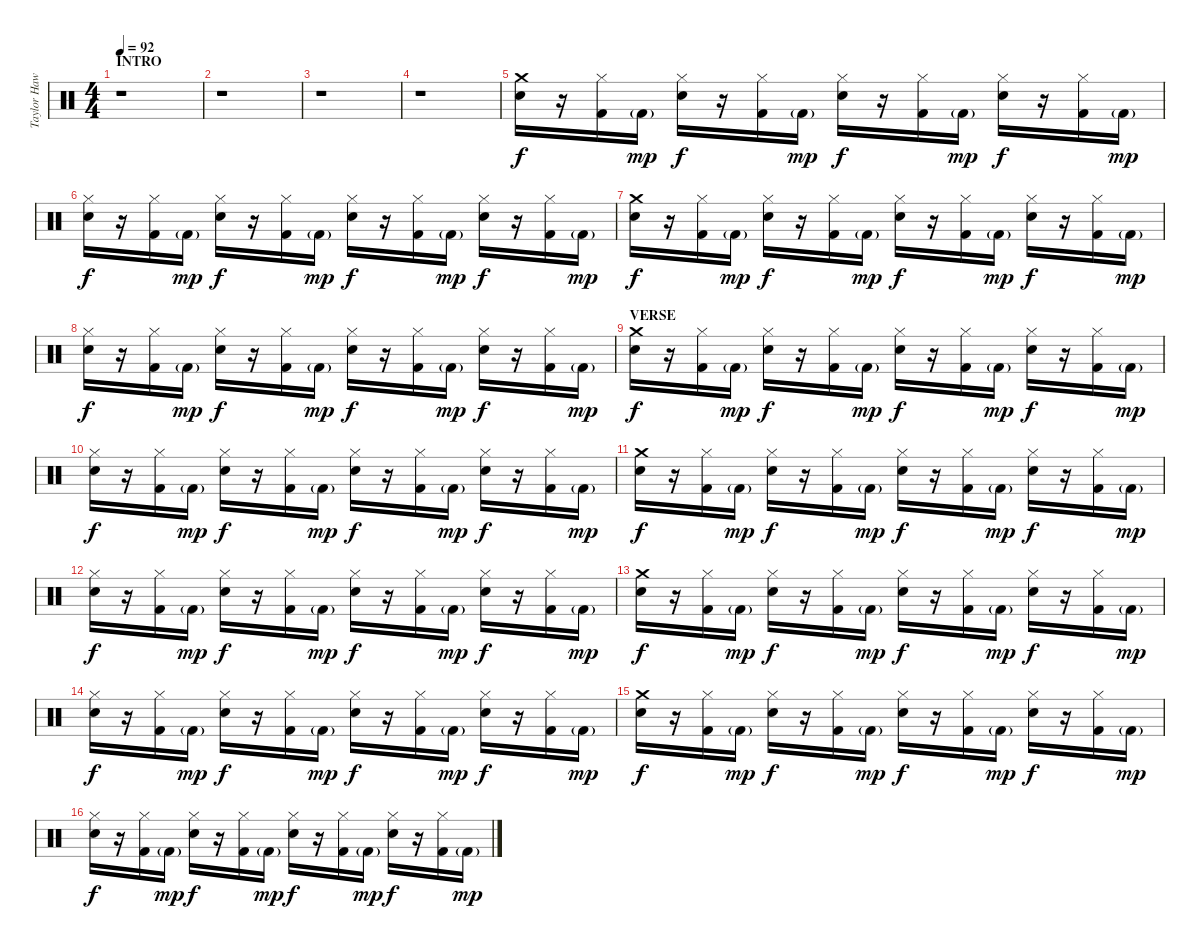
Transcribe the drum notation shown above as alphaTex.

\track ("Taylor Hawkins (Drums)" "Taylor Haw") {instrument percussion}
\staff {score}
\articulation defaults
\ts (4 4)
\section ("" "INTRO")
\tempo 92
\clef neutral
\ks c
r.1{dy f} |
r.1 |
r.1 |
r.1 |
("Crash medium (hit)" "Electric Snare (hit)").16 r.16 ("Hi-Hat (closed)" "Kick (hit) 2").16 "Kick (hit) 2"{g}.16{dy mp} ("Hi-Hat (closed)" "Electric Snare (hit)").16{dy f} r.16 ("Hi-Hat (closed)" "Kick (hit) 2").16 "Kick (hit) 2"{g}.16{dy mp} ("Hi-Hat (closed)" "Electric Snare (hit)").16{dy f} r.16 ("Hi-Hat (closed)" "Kick (hit) 2").16 "Kick (hit) 2"{g}.16{dy mp} ("Hi-Hat (closed)" "Electric Snare (hit)").16{dy f} r.16 ("Hi-Hat (closed)" "Kick (hit) 2").16 "Kick (hit) 2"{g}.16{dy mp} |
("Hi-Hat (closed)" "Electric Snare (hit)").16{dy f} r.16 ("Hi-Hat (closed)" "Kick (hit) 2").16 "Kick (hit) 2"{g}.16{dy mp} ("Hi-Hat (closed)" "Electric Snare (hit)").16{dy f} r.16 ("Hi-Hat (closed)" "Kick (hit) 2").16 "Kick (hit) 2"{g}.16{dy mp} ("Hi-Hat (closed)" "Electric Snare (hit)").16{dy f} r.16 ("Hi-Hat (closed)" "Kick (hit) 2").16 "Kick (hit) 2"{g}.16{dy mp} ("Hi-Hat (closed)" "Electric Snare (hit)").16{dy f} r.16 ("Hi-Hat (closed)" "Kick (hit) 2").16 "Kick (hit) 2"{g}.16{dy mp} |
("Crash medium (hit)" "Electric Snare (hit)").16{dy f} r.16 ("Hi-Hat (closed)" "Kick (hit) 2").16 "Kick (hit) 2"{g}.16{dy mp} ("Hi-Hat (closed)" "Electric Snare (hit)").16{dy f} r.16 ("Hi-Hat (closed)" "Kick (hit) 2").16 "Kick (hit) 2"{g}.16{dy mp} ("Hi-Hat (closed)" "Electric Snare (hit)").16{dy f} r.16 ("Hi-Hat (closed)" "Kick (hit) 2").16 "Kick (hit) 2"{g}.16{dy mp} ("Hi-Hat (closed)" "Electric Snare (hit)").16{dy f} r.16 ("Hi-Hat (closed)" "Kick (hit) 2").16 "Kick (hit) 2"{g}.16{dy mp} |
("Hi-Hat (closed)" "Electric Snare (hit)").16{dy f} r.16 ("Hi-Hat (closed)" "Kick (hit) 2").16 "Kick (hit) 2"{g}.16{dy mp} ("Hi-Hat (closed)" "Electric Snare (hit)").16{dy f} r.16 ("Hi-Hat (closed)" "Kick (hit) 2").16 "Kick (hit) 2"{g}.16{dy mp} ("Hi-Hat (closed)" "Electric Snare (hit)").16{dy f} r.16 ("Hi-Hat (closed)" "Kick (hit) 2").16 "Kick (hit) 2"{g}.16{dy mp} ("Hi-Hat (closed)" "Electric Snare (hit)").16{dy f} r.16 ("Hi-Hat (closed)" "Kick (hit) 2").16 "Kick (hit) 2"{g}.16{dy mp} |
\section ("" "VERSE")
("Crash medium (hit)" "Electric Snare (hit)").16{dy f} r.16 ("Hi-Hat (closed)" "Kick (hit) 2").16 "Kick (hit) 2"{g}.16{dy mp} ("Hi-Hat (closed)" "Electric Snare (hit)").16{dy f} r.16 ("Hi-Hat (closed)" "Kick (hit) 2").16 "Kick (hit) 2"{g}.16{dy mp} ("Hi-Hat (closed)" "Electric Snare (hit)").16{dy f} r.16 ("Hi-Hat (closed)" "Kick (hit) 2").16 "Kick (hit) 2"{g}.16{dy mp} ("Hi-Hat (closed)" "Electric Snare (hit)").16{dy f} r.16 ("Hi-Hat (closed)" "Kick (hit) 2").16 "Kick (hit) 2"{g}.16{dy mp} |
("Hi-Hat (closed)" "Electric Snare (hit)").16{dy f} r.16 ("Hi-Hat (closed)" "Kick (hit) 2").16 "Kick (hit) 2"{g}.16{dy mp} ("Hi-Hat (closed)" "Electric Snare (hit)").16{dy f} r.16 ("Hi-Hat (closed)" "Kick (hit) 2").16 "Kick (hit) 2"{g}.16{dy mp} ("Hi-Hat (closed)" "Electric Snare (hit)").16{dy f} r.16 ("Hi-Hat (closed)" "Kick (hit) 2").16 "Kick (hit) 2"{g}.16{dy mp} ("Hi-Hat (closed)" "Electric Snare (hit)").16{dy f} r.16 ("Hi-Hat (closed)" "Kick (hit) 2").16 "Kick (hit) 2"{g}.16{dy mp} |
("Crash medium (hit)" "Electric Snare (hit)").16{dy f} r.16 ("Hi-Hat (closed)" "Kick (hit) 2").16 "Kick (hit) 2"{g}.16{dy mp} ("Hi-Hat (closed)" "Electric Snare (hit)").16{dy f} r.16 ("Hi-Hat (closed)" "Kick (hit) 2").16 "Kick (hit) 2"{g}.16{dy mp} ("Hi-Hat (closed)" "Electric Snare (hit)").16{dy f} r.16 ("Hi-Hat (closed)" "Kick (hit) 2").16 "Kick (hit) 2"{g}.16{dy mp} ("Hi-Hat (closed)" "Electric Snare (hit)").16{dy f} r.16 ("Hi-Hat (closed)" "Kick (hit) 2").16 "Kick (hit) 2"{g}.16{dy mp} |
("Hi-Hat (closed)" "Electric Snare (hit)").16{dy f} r.16 ("Hi-Hat (closed)" "Kick (hit) 2").16 "Kick (hit) 2"{g}.16{dy mp} ("Hi-Hat (closed)" "Electric Snare (hit)").16{dy f} r.16 ("Hi-Hat (closed)" "Kick (hit) 2").16 "Kick (hit) 2"{g}.16{dy mp} ("Hi-Hat (closed)" "Electric Snare (hit)").16{dy f} r.16 ("Hi-Hat (closed)" "Kick (hit) 2").16 "Kick (hit) 2"{g}.16{dy mp} ("Hi-Hat (closed)" "Electric Snare (hit)").16{dy f} r.16 ("Hi-Hat (closed)" "Kick (hit) 2").16 "Kick (hit) 2"{g}.16{dy mp} |
("Crash medium (hit)" "Electric Snare (hit)").16{dy f} r.16 ("Hi-Hat (closed)" "Kick (hit) 2").16 "Kick (hit) 2"{g}.16{dy mp} ("Hi-Hat (closed)" "Electric Snare (hit)").16{dy f} r.16 ("Hi-Hat (closed)" "Kick (hit) 2").16 "Kick (hit) 2"{g}.16{dy mp} ("Hi-Hat (closed)" "Electric Snare (hit)").16{dy f} r.16 ("Hi-Hat (closed)" "Kick (hit) 2").16 "Kick (hit) 2"{g}.16{dy mp} ("Hi-Hat (closed)" "Electric Snare (hit)").16{dy f} r.16 ("Hi-Hat (closed)" "Kick (hit) 2").16 "Kick (hit) 2"{g}.16{dy mp} |
("Hi-Hat (closed)" "Electric Snare (hit)").16{dy f} r.16 ("Hi-Hat (closed)" "Kick (hit) 2").16 "Kick (hit) 2"{g}.16{dy mp} ("Hi-Hat (closed)" "Electric Snare (hit)").16{dy f} r.16 ("Hi-Hat (closed)" "Kick (hit) 2").16 "Kick (hit) 2"{g}.16{dy mp} ("Hi-Hat (closed)" "Electric Snare (hit)").16{dy f} r.16 ("Hi-Hat (closed)" "Kick (hit) 2").16 "Kick (hit) 2"{g}.16{dy mp} ("Hi-Hat (closed)" "Electric Snare (hit)").16{dy f} r.16 ("Hi-Hat (closed)" "Kick (hit) 2").16 "Kick (hit) 2"{g}.16{dy mp} |
("Crash medium (hit)" "Electric Snare (hit)").16{dy f} r.16 ("Hi-Hat (closed)" "Kick (hit) 2").16 "Kick (hit) 2"{g}.16{dy mp} ("Hi-Hat (closed)" "Electric Snare (hit)").16{dy f} r.16 ("Hi-Hat (closed)" "Kick (hit) 2").16 "Kick (hit) 2"{g}.16{dy mp} ("Hi-Hat (closed)" "Electric Snare (hit)").16{dy f} r.16 ("Hi-Hat (closed)" "Kick (hit) 2").16 "Kick (hit) 2"{g}.16{dy mp} ("Hi-Hat (closed)" "Electric Snare (hit)").16{dy f} r.16 ("Hi-Hat (closed)" "Kick (hit) 2").16 "Kick (hit) 2"{g}.16{dy mp} |
("Hi-Hat (closed)" "Electric Snare (hit)").16{dy f} r.16 ("Hi-Hat (closed)" "Kick (hit) 2").16 "Kick (hit) 2"{g}.16{dy mp} ("Hi-Hat (closed)" "Electric Snare (hit)").16{dy f} r.16 ("Hi-Hat (closed)" "Kick (hit) 2").16 "Kick (hit) 2"{g}.16{dy mp} ("Hi-Hat (closed)" "Electric Snare (hit)").16{dy f} r.16 ("Hi-Hat (closed)" "Kick (hit) 2").16 "Kick (hit) 2"{g}.16{dy mp} ("Hi-Hat (closed)" "Electric Snare (hit)").16{dy f} r.16 ("Hi-Hat (closed)" "Kick (hit) 2").16 "Kick (hit) 2"{g}.16{dy mp}
